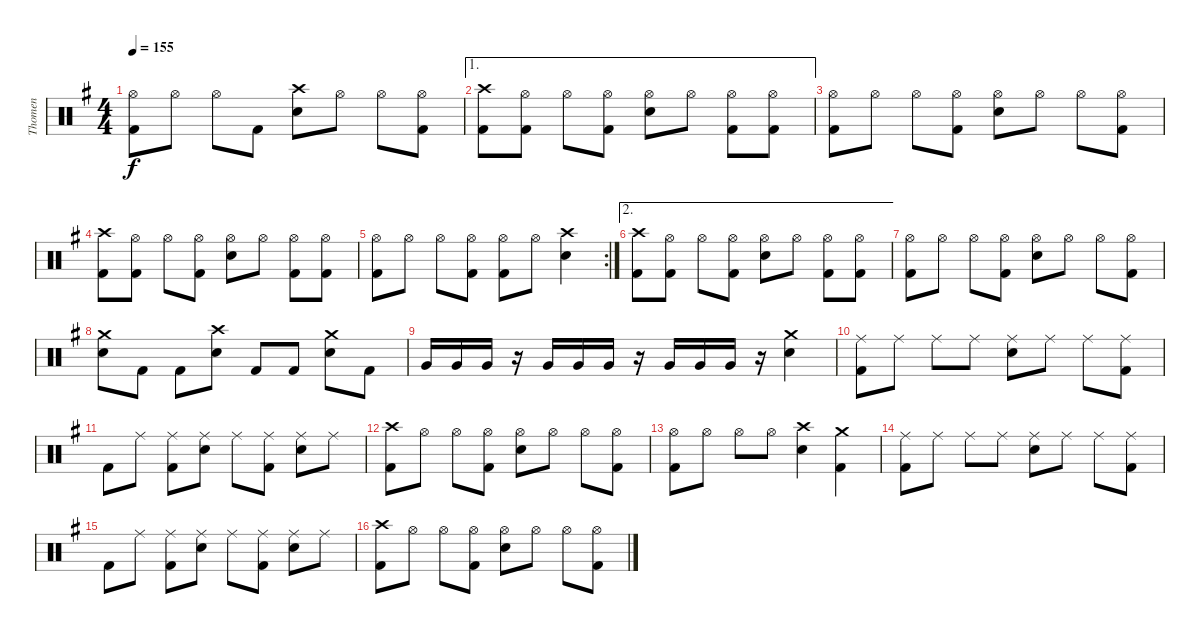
\track ("Thomen" "Thomen") {instrument percussion}
\staff {score}
\articulation defaults
\ts (4 4)
\tempo 155
\clef neutral
\ks g
("Hi-Hat (open)" "Kick (hit) 2").8{dy f} "Hi-Hat (open)".8 "Hi-Hat (open)".8 "Kick (hit) 2".8 ("Crash high (hit)" "Electric Snare (hit)").8 "Hi-Hat (open)".8 "Hi-Hat (open)".8 ("Hi-Hat (open)" "Kick (hit) 2").8 |
\ae 1
("Crash high (hit)" "Kick (hit) 2").8 ("Hi-Hat (open)" "Kick (hit) 2").8 "Hi-Hat (open)".8 ("Hi-Hat (open)" "Kick (hit) 2").8 ("Hi-Hat (open)" "Electric Snare (hit)").8 "Hi-Hat (open)".8 ("Hi-Hat (open)" "Kick (hit) 2").8 ("Hi-Hat (open)" "Kick (hit) 2").8 |
("Hi-Hat (open)" "Kick (hit) 2").8 "Hi-Hat (open)".8 "Hi-Hat (open)".8 ("Hi-Hat (open)" "Kick (hit) 2").8 ("Hi-Hat (open)" "Electric Snare (hit)").8 "Hi-Hat (open)".8 "Hi-Hat (open)".8 ("Hi-Hat (open)" "Kick (hit) 2").8 |
("Crash high (hit)" "Kick (hit) 2").8 ("Hi-Hat (open)" "Kick (hit) 2").8 "Hi-Hat (open)".8 ("Hi-Hat (open)" "Kick (hit) 2").8 ("Hi-Hat (open)" "Electric Snare (hit)").8 "Hi-Hat (open)".8 ("Hi-Hat (open)" "Kick (hit) 2").8 ("Hi-Hat (open)" "Kick (hit) 2").8 |
\rc 2
("Hi-Hat (open)" "Kick (hit) 2").8 "Hi-Hat (open)".8 "Hi-Hat (open)".8 ("Hi-Hat (open)" "Kick (hit) 2").8 ("Hi-Hat (open)" "Kick (hit) 2").8 "Hi-Hat (open)".8 ("Crash high (hit)" "Electric Snare (hit)").4 |
\ae 2
("Crash high (hit)" "Kick (hit) 2").8 ("Hi-Hat (open)" "Kick (hit) 2").8 "Hi-Hat (open)".8 ("Hi-Hat (open)" "Kick (hit) 2").8 ("Hi-Hat (open)" "Electric Snare (hit)").8 "Hi-Hat (open)".8 ("Hi-Hat (open)" "Kick (hit) 2").8 ("Hi-Hat (open)" "Kick (hit) 2").8 |
("Hi-Hat (open)" "Kick (hit) 2").8 "Hi-Hat (open)".8 "Hi-Hat (open)".8 ("Hi-Hat (open)" "Kick (hit) 2").8 ("Hi-Hat (open)" "Electric Snare (hit)").8 "Hi-Hat (open)".8 "Hi-Hat (open)".8 ("Hi-Hat (open)" "Kick (hit) 2").8 |
("Crash medium (hit)" "Electric Snare (hit)").8 "Kick (hit) 2".8 "Kick (hit) 2".8 ("Crash high (hit)" "Electric Snare (hit)").8 "Kick (hit) 2".8 "Kick (hit) 2".8 ("Crash medium (hit)" "Electric Snare (hit)").8 "Kick (hit) 2".8 |
"Very Low Tom (hit)".16 "Very Low Tom (hit)".16 "Very Low Tom (hit)".16 r.16 "Very Low Tom (hit)".16 "Very Low Tom (hit)".16 "Very Low Tom (hit)".16 r.16 "Very Low Tom (hit)".16 "Very Low Tom (hit)".16 "Very Low Tom (hit)".16 r.16 ("Crash medium (hit)" "Electric Snare (hit)").4 |
("Ride (middle)" "Kick (hit) 2").8 "Ride (middle)".8 "Ride (middle)".8 "Ride (middle)".8 ("Ride (middle)" "Electric Snare (hit)").8 "Ride (middle)".8 "Ride (middle)".8 ("Ride (middle)" "Kick (hit) 2").8 |
"Kick (hit) 2".8 "Ride (middle)".8 ("Ride (middle)" "Kick (hit) 2").8 ("Ride (middle)" "Electric Snare (hit)").8 "Ride (middle)".8 ("Ride (middle)" "Kick (hit) 2").8 ("Ride (middle)" "Electric Snare (hit)").8 "Ride (middle)".8 |
("Crash high (hit)" "Kick (hit) 2").8 "Hi-Hat (open)".8 "Hi-Hat (open)".8 ("Hi-Hat (open)" "Kick (hit) 2").8 ("Hi-Hat (open)" "Electric Snare (hit)").8 "Hi-Hat (open)".8 "Hi-Hat (open)".8 ("Hi-Hat (open)" "Kick (hit) 2").8 |
("Hi-Hat (open)" "Kick (hit) 2").8 "Hi-Hat (open)".8 "Hi-Hat (open)".8 "Hi-Hat (open)".8 ("Crash high (hit)" "Electric Snare (hit)").4 ("Crash medium (hit)" "Kick (hit) 2").4 |
("Ride (middle)" "Kick (hit) 2").8 "Ride (middle)".8 "Ride (middle)".8 "Ride (middle)".8 ("Ride (middle)" "Electric Snare (hit)").8 "Ride (middle)".8 "Ride (middle)".8 ("Ride (middle)" "Kick (hit) 2").8 |
"Kick (hit) 2".8 "Ride (middle)".8 ("Ride (middle)" "Kick (hit) 2").8 ("Ride (middle)" "Electric Snare (hit)").8 "Ride (middle)".8 ("Ride (middle)" "Kick (hit) 2").8 ("Ride (middle)" "Electric Snare (hit)").8 "Ride (middle)".8 |
("Crash high (hit)" "Kick (hit) 2").8 "Hi-Hat (open)".8 "Hi-Hat (open)".8 ("Hi-Hat (open)" "Kick (hit) 2").8 ("Hi-Hat (open)" "Electric Snare (hit)").8 "Hi-Hat (open)".8 "Hi-Hat (open)".8 ("Hi-Hat (open)" "Kick (hit) 2").8
